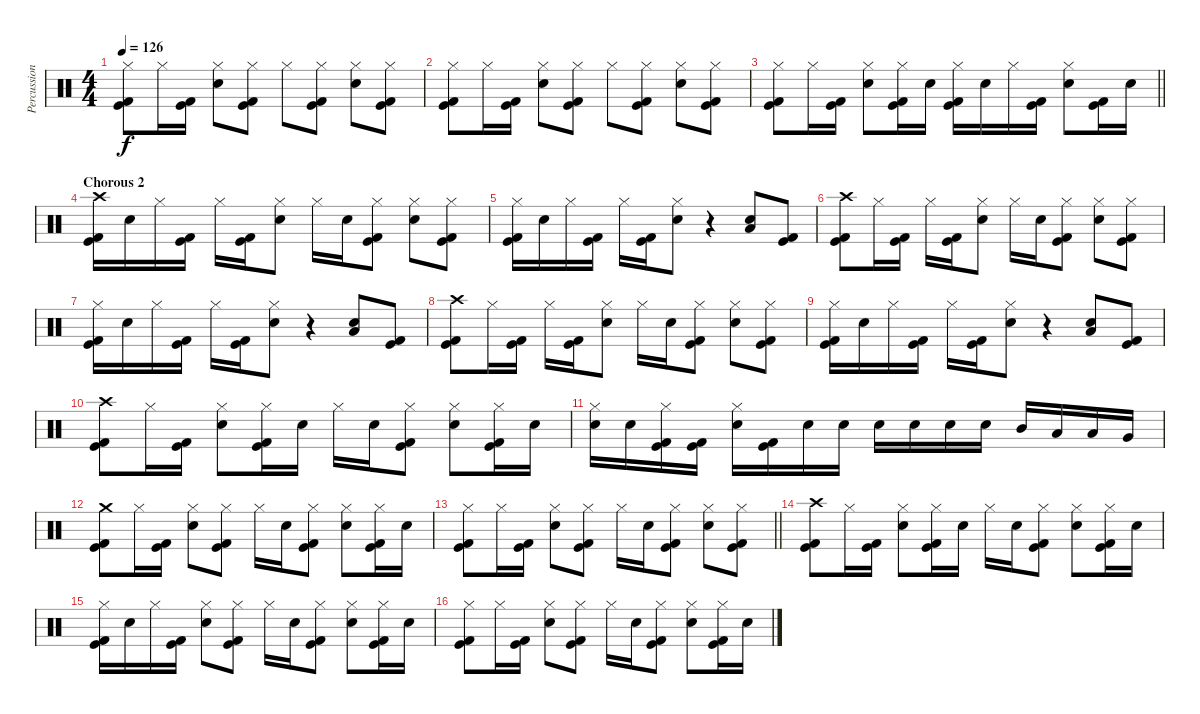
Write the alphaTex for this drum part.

\track ("Percussion" "Percussion") {instrument percussion}
\staff {score}
\articulation defaults
\ts (4 4)
\tempo 126
\clef neutral
\ks c
("Hi-Hat (closed)" "Kick (hit)" "Kick (hit) 2").8{dy f} "Hi-Hat (closed)".16 ("Kick (hit)" "Kick (hit) 2").16 ("Hi-Hat (closed)" "Electric Snare (hit)").8 ("Hi-Hat (closed)" "Kick (hit)" "Kick (hit) 2").8 "Hi-Hat (closed)".8 ("Hi-Hat (closed)" "Kick (hit)" "Kick (hit) 2").8 ("Hi-Hat (closed)" "Electric Snare (hit)").8 ("Hi-Hat (closed)" "Kick (hit)" "Kick (hit) 2").8 |
("Hi-Hat (closed)" "Kick (hit)" "Kick (hit) 2").8 "Hi-Hat (closed)".16 ("Kick (hit)" "Kick (hit) 2").16 ("Hi-Hat (closed)" "Electric Snare (hit)").8 ("Hi-Hat (closed)" "Kick (hit)" "Kick (hit) 2").8 "Hi-Hat (closed)".8 ("Hi-Hat (closed)" "Kick (hit)" "Kick (hit) 2").8 ("Hi-Hat (closed)" "Electric Snare (hit)").8 ("Hi-Hat (closed)" "Kick (hit)" "Kick (hit) 2").8 |
\barLineRight lightlight
("Hi-Hat (closed)" "Kick (hit)" "Kick (hit) 2").8 "Hi-Hat (closed)".16 ("Kick (hit)" "Kick (hit) 2").16 ("Hi-Hat (closed)" "Electric Snare (hit)").8 ("Hi-Hat (closed)" "Kick (hit)" "Kick (hit) 2").16 "Electric Snare (hit)".16 ("Hi-Hat (closed)" "Kick (hit)" "Kick (hit) 2").16 "Electric Snare (hit)".16 "Hi-Hat (closed)".16 ("Kick (hit)" "Kick (hit) 2").16 ("Hi-Hat (closed)" "Electric Snare (hit)").8 ("Kick (hit)" "Kick (hit) 2").16 "Electric Snare (hit)".16 |
\section ("" "Chorous 2")
("Crash high (hit)" "Kick (hit)" "Kick (hit) 2").16 "Electric Snare (hit)".16 "Hi-Hat (closed)".16 ("Kick (hit)" "Kick (hit) 2").16 "Hi-Hat (closed)".16 ("Kick (hit)" "Kick (hit) 2").16 ("Hi-Hat (closed)" "Electric Snare (hit)").8 "Hi-Hat (closed)".16 "Electric Snare (hit)".16 ("Hi-Hat (closed)" "Kick (hit)" "Kick (hit) 2").8 ("Hi-Hat (closed)" "Electric Snare (hit)").8 ("Hi-Hat (closed)" "Kick (hit)" "Kick (hit) 2").8 |
("Hi-Hat (closed)" "Kick (hit)" "Kick (hit) 2").16 "Electric Snare (hit)".16 "Hi-Hat (closed)".16 ("Kick (hit)" "Kick (hit) 2").16 "Hi-Hat (closed)".16 ("Kick (hit)" "Kick (hit) 2").16 ("Hi-Hat (closed)" "Electric Snare (hit)").8 r.4 ("Electric Snare (hit)" "Low Floor Tom (hit)").8 ("Kick (hit)" "Kick (hit) 2").8 |
("Crash high (hit)" "Kick (hit)" "Kick (hit) 2").8 "Hi-Hat (closed)".16 ("Kick (hit)" "Kick (hit) 2").16 "Hi-Hat (closed)".16 ("Kick (hit)" "Kick (hit) 2").16 ("Hi-Hat (closed)" "Electric Snare (hit)").8 "Hi-Hat (closed)".16 "Electric Snare (hit)".16 ("Hi-Hat (closed)" "Kick (hit)" "Kick (hit) 2").8 ("Hi-Hat (closed)" "Electric Snare (hit)").8 ("Hi-Hat (closed)" "Kick (hit)" "Kick (hit) 2").8 |
("Hi-Hat (closed)" "Kick (hit)" "Kick (hit) 2").16 "Electric Snare (hit)".16 "Hi-Hat (closed)".16 ("Kick (hit)" "Kick (hit) 2").16 "Hi-Hat (closed)".16 ("Kick (hit)" "Kick (hit) 2").16 ("Hi-Hat (closed)" "Electric Snare (hit)").8 r.4 ("Electric Snare (hit)" "Low Floor Tom (hit)").8 ("Kick (hit)" "Kick (hit) 2").8 |
("Crash high (hit)" "Kick (hit)" "Kick (hit) 2").8 "Hi-Hat (closed)".16 ("Kick (hit)" "Kick (hit) 2").16 "Hi-Hat (closed)".16 ("Kick (hit)" "Kick (hit) 2").16 ("Hi-Hat (closed)" "Electric Snare (hit)").8 "Hi-Hat (closed)".16 "Electric Snare (hit)".16 ("Hi-Hat (closed)" "Kick (hit)" "Kick (hit) 2").8 ("Hi-Hat (closed)" "Electric Snare (hit)").8 ("Hi-Hat (closed)" "Kick (hit)" "Kick (hit) 2").8 |
("Hi-Hat (closed)" "Kick (hit)" "Kick (hit) 2").16 "Electric Snare (hit)".16 "Hi-Hat (closed)".16 ("Kick (hit)" "Kick (hit) 2").16 "Hi-Hat (closed)".16 ("Kick (hit)" "Kick (hit) 2").16 ("Hi-Hat (closed)" "Electric Snare (hit)").8 r.4 ("Electric Snare (hit)" "Low Floor Tom (hit)").8 ("Kick (hit)" "Kick (hit) 2").8 |
("Crash high (hit)" "Kick (hit)" "Kick (hit) 2").8 "Hi-Hat (closed)".16 ("Kick (hit)" "Kick (hit) 2").16 ("Hi-Hat (closed)" "Electric Snare (hit)").8 ("Hi-Hat (closed)" "Kick (hit)" "Kick (hit) 2").16 "Electric Snare (hit)".16 "Hi-Hat (closed)".16 "Electric Snare (hit)".16 ("Hi-Hat (closed)" "Kick (hit)" "Kick (hit) 2").8 ("Hi-Hat (closed)" "Electric Snare (hit)").8 ("Hi-Hat (closed)" "Kick (hit)" "Kick (hit) 2").16 "Electric Snare (hit)".16 |
("Hi-Hat (closed)" "Electric Snare (hit)").16 "Electric Snare (hit)".16 ("Hi-Hat (closed)" "Kick (hit)" "Kick (hit) 2").16 ("Kick (hit)" "Kick (hit) 2").16 ("Hi-Hat (closed)" "Electric Snare (hit)").16 ("Kick (hit)" "Kick (hit) 2").16 "Electric Snare (hit)".16 "Electric Snare (hit)".16 "Electric Snare (hit)".16 "Electric Snare (hit)".16 "Electric Snare (hit)".16 "Electric Snare (hit)".16 "Mid Tom (hit)".16 "Low Tom (hit)".16 "Low Tom (hit)".16 "Very Low Tom (hit)".16 |
("Crash medium (hit)" "Kick (hit)" "Kick (hit) 2").8 "Hi-Hat (closed)".16 ("Kick (hit)" "Kick (hit) 2").16 ("Hi-Hat (closed)" "Electric Snare (hit)").8 ("Hi-Hat (closed)" "Kick (hit)" "Kick (hit) 2").8 "Hi-Hat (closed)".16 "Electric Snare (hit)".16 ("Hi-Hat (closed)" "Kick (hit)" "Kick (hit) 2").8 ("Hi-Hat (closed)" "Electric Snare (hit)").8 ("Hi-Hat (closed)" "Kick (hit)" "Kick (hit) 2").16 "Electric Snare (hit)".16 |
\barLineRight lightlight
("Hi-Hat (closed)" "Kick (hit)" "Kick (hit) 2").8 "Hi-Hat (closed)".16 ("Kick (hit)" "Kick (hit) 2").16 ("Hi-Hat (closed)" "Electric Snare (hit)").8 ("Hi-Hat (closed)" "Kick (hit)" "Kick (hit) 2").8 "Hi-Hat (closed)".16 "Electric Snare (hit)".16 ("Hi-Hat (closed)" "Kick (hit)" "Kick (hit) 2").8 ("Hi-Hat (closed)" "Electric Snare (hit)").8 ("Hi-Hat (closed)" "Kick (hit)" "Kick (hit) 2").8 |
\section ("" "")
("Crash high (hit)" "Kick (hit)" "Kick (hit) 2").8 "Hi-Hat (closed)".16 ("Kick (hit)" "Kick (hit) 2").16 ("Hi-Hat (closed)" "Electric Snare (hit)").8 ("Hi-Hat (closed)" "Kick (hit)" "Kick (hit) 2").16 "Electric Snare (hit)".16 "Hi-Hat (closed)".16 "Electric Snare (hit)".16 ("Hi-Hat (closed)" "Kick (hit)" "Kick (hit) 2").8 ("Hi-Hat (closed)" "Electric Snare (hit)").8 ("Hi-Hat (closed)" "Kick (hit)" "Kick (hit) 2").16 "Electric Snare (hit)".16 |
("Hi-Hat (closed)" "Kick (hit)" "Kick (hit) 2").16 "Electric Snare (hit)".16 "Hi-Hat (closed)".16 ("Kick (hit)" "Kick (hit) 2").16 ("Hi-Hat (closed)" "Electric Snare (hit)").8 ("Hi-Hat (closed)" "Kick (hit)" "Kick (hit) 2").8 "Hi-Hat (closed)".16 "Electric Snare (hit)".16 ("Hi-Hat (closed)" "Kick (hit)" "Kick (hit) 2").8 ("Hi-Hat (closed)" "Electric Snare (hit)").8 ("Hi-Hat (closed)" "Kick (hit)" "Kick (hit) 2").16 "Electric Snare (hit)".16 |
("Hi-Hat (closed)" "Kick (hit)" "Kick (hit) 2").8 "Hi-Hat (closed)".16 ("Kick (hit)" "Kick (hit) 2").16 ("Hi-Hat (closed)" "Electric Snare (hit)").8 ("Hi-Hat (closed)" "Kick (hit)" "Kick (hit) 2").8 "Hi-Hat (closed)".16 "Electric Snare (hit)".16 ("Hi-Hat (closed)" "Kick (hit)" "Kick (hit) 2").8 ("Hi-Hat (closed)" "Electric Snare (hit)").8 ("Hi-Hat (closed)" "Kick (hit)" "Kick (hit) 2").16 "Electric Snare (hit)".16
